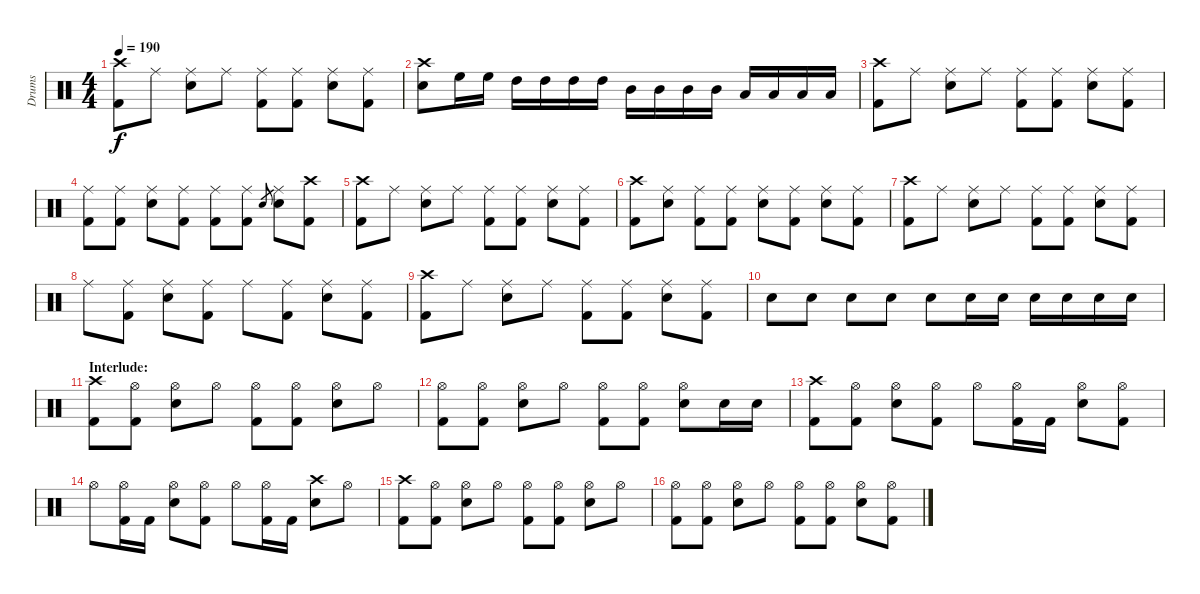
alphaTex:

\track ("Drums" "Drums") {instrument percussion}
\staff {score}
\articulation defaults
\ts (4 4)
\tempo 190
\clef neutral
\ks c
("Crash high (hit)" "Kick (hit) 2").8{dy f} "Ride (middle)".8 ("Ride (middle)" "Electric Snare (hit)").8 "Ride (middle)".8 ("Ride (middle)" "Kick (hit) 2").8 ("Ride (middle)" "Kick (hit) 2").8 ("Ride (middle)" "Electric Snare (hit)").8 ("Ride (middle)" "Kick (hit) 2").8 |
("Crash high (hit)" "Electric Snare (hit)").8 "High Floor Tom (hit)".16 "High Floor Tom (hit)".16 "High Tom (hit)".16 "High Tom (hit)".16 "High Tom (hit)".16 "High Tom (hit)".16 "Mid Tom (hit)".16 "Mid Tom (hit)".16 "Mid Tom (hit)".16 "Mid Tom (hit)".16 "Low Tom (hit)".16 "Low Tom (hit)".16 "Low Tom (hit)".16 "Low Tom (hit)".16 |
("Crash high (hit)" "Kick (hit) 2").8 "Ride (middle)".8 ("Ride (middle)" "Electric Snare (hit)").8 "Ride (middle)".8 ("Ride (middle)" "Kick (hit) 2").8 ("Ride (middle)" "Kick (hit) 2").8 ("Ride (middle)" "Electric Snare (hit)").8 ("Ride (middle)" "Kick (hit) 2").8 |
("Ride (middle)" "Kick (hit) 2").8 ("Ride (middle)" "Kick (hit) 2").8 ("Ride (middle)" "Electric Snare (hit)").8 ("Ride (middle)" "Kick (hit) 2").8 ("Ride (middle)" "Kick (hit) 2").8 ("Ride (middle)" "Kick (hit) 2").8 "Electric Snare (hit)".8{gr} ("Ride (middle)" "Electric Snare (hit)").8 ("Crash high (hit)" "Kick (hit) 2").8 |
("Crash high (hit)" "Kick (hit) 2").8 "Ride (middle)".8 ("Ride (middle)" "Electric Snare (hit)").8 "Ride (middle)".8 ("Ride (middle)" "Kick (hit) 2").8 ("Ride (middle)" "Kick (hit) 2").8 ("Ride (middle)" "Electric Snare (hit)").8 ("Ride (middle)" "Kick (hit) 2").8 |
("Crash high (hit)" "Kick (hit) 2").8 ("Ride (middle)" "Electric Snare (hit)").8 ("Ride (middle)" "Kick (hit) 2").8 ("Ride (middle)" "Kick (hit) 2").8 ("Ride (middle)" "Electric Snare (hit)").8 ("Ride (middle)" "Kick (hit) 2").8 ("Ride (middle)" "Electric Snare (hit)").8 ("Ride (middle)" "Kick (hit) 2").8 |
("Crash high (hit)" "Kick (hit) 2").8 "Ride (middle)".8 ("Ride (middle)" "Electric Snare (hit)").8 "Ride (middle)".8 ("Ride (middle)" "Kick (hit) 2").8 ("Ride (middle)" "Kick (hit) 2").8 ("Ride (middle)" "Electric Snare (hit)").8 ("Ride (middle)" "Kick (hit) 2").8 |
"Ride (middle)".8 ("Ride (middle)" "Kick (hit) 2").8 ("Ride (middle)" "Electric Snare (hit)").8 ("Ride (middle)" "Kick (hit) 2").8 "Ride (middle)".8 ("Ride (middle)" "Kick (hit) 2").8 ("Ride (middle)" "Electric Snare (hit)").8 ("Ride (middle)" "Kick (hit) 2").8 |
("Crash high (hit)" "Kick (hit) 2").8 "Ride (middle)".8 ("Ride (middle)" "Electric Snare (hit)").8 "Ride (middle)".8 ("Ride (middle)" "Kick (hit) 2").8 ("Ride (middle)" "Kick (hit) 2").8 ("Ride (middle)" "Electric Snare (hit)").8 ("Ride (middle)" "Kick (hit) 2").8 |
"Electric Snare (hit)".8 "Electric Snare (hit)".8 "Electric Snare (hit)".8 "Electric Snare (hit)".8 "Electric Snare (hit)".8 "Electric Snare (hit)".16 "Electric Snare (hit)".16 "Electric Snare (hit)".16 "Electric Snare (hit)".16 "Electric Snare (hit)".16 "Electric Snare (hit)".16 |
\section ("" "Interlude:")
("Crash high (hit)" "Kick (hit) 2").8 ("Hi-Hat (open)" "Kick (hit) 2").8 ("Hi-Hat (open)" "Electric Snare (hit)").8 "Hi-Hat (open)".8 ("Hi-Hat (open)" "Kick (hit) 2").8 ("Hi-Hat (open)" "Kick (hit) 2").8 ("Hi-Hat (open)" "Electric Snare (hit)").8 "Hi-Hat (open)".8 |
("Hi-Hat (open)" "Kick (hit) 2").8 ("Hi-Hat (open)" "Kick (hit) 2").8 ("Hi-Hat (open)" "Electric Snare (hit)").8 "Hi-Hat (open)".8 ("Hi-Hat (open)" "Kick (hit) 2").8 ("Hi-Hat (open)" "Kick (hit) 2").8 ("Hi-Hat (open)" "Electric Snare (hit)").8 "Electric Snare (hit)".16 "Electric Snare (hit)".16 |
("Crash high (hit)" "Kick (hit) 2").8 ("Hi-Hat (open)" "Kick (hit) 2").8 ("Hi-Hat (open)" "Electric Snare (hit)").8 ("Hi-Hat (open)" "Kick (hit) 2").8 "Hi-Hat (open)".8 ("Hi-Hat (open)" "Kick (hit) 2").16 "Kick (hit) 2".16 ("Hi-Hat (open)" "Electric Snare (hit)").8 ("Hi-Hat (open)" "Kick (hit) 2").8 |
"Hi-Hat (open)".8 ("Hi-Hat (open)" "Kick (hit) 2").16 "Kick (hit) 2".16 ("Hi-Hat (open)" "Electric Snare (hit)").8 ("Hi-Hat (open)" "Kick (hit) 2").8 "Hi-Hat (open)".8 ("Hi-Hat (open)" "Kick (hit) 2").16 "Kick (hit) 2".16 ("Crash high (hit)" "Electric Snare (hit)").8 "Hi-Hat (open)".8 |
("Crash high (hit)" "Kick (hit) 2").8 ("Hi-Hat (open)" "Kick (hit) 2").8 ("Hi-Hat (open)" "Electric Snare (hit)").8 "Hi-Hat (open)".8 ("Hi-Hat (open)" "Kick (hit) 2").8 ("Hi-Hat (open)" "Kick (hit) 2").8 ("Hi-Hat (open)" "Electric Snare (hit)").8 "Hi-Hat (open)".8 |
("Hi-Hat (open)" "Kick (hit) 2").8 ("Hi-Hat (open)" "Kick (hit) 2").8 ("Hi-Hat (open)" "Electric Snare (hit)").8 "Hi-Hat (open)".8 ("Hi-Hat (open)" "Kick (hit) 2").8 ("Hi-Hat (open)" "Kick (hit) 2").8 ("Hi-Hat (open)" "Electric Snare (hit)").8 ("Hi-Hat (open)" "Kick (hit) 2").8
